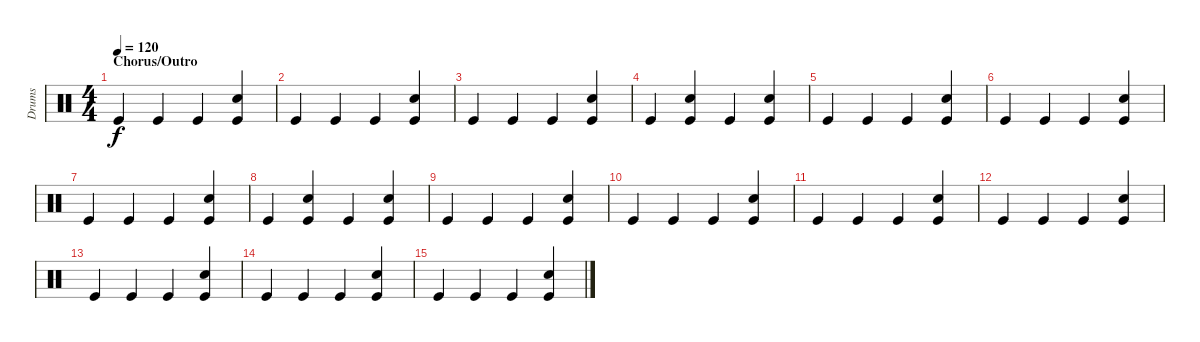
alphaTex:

\track ("Drums" "Drums") {instrument percussion}
\staff {score}
\articulation defaults
\ts (4 4)
\section ("" "Chorus/Outro")
\tempo 120
\clef neutral
\ks c "Kick (hit)".4{dy f} "Kick (hit)".4 "Kick (hit)".4
("Snare (hit) 2" "Kick (hit)").4 |
"Kick (hit)".4 "Kick (hit)".4 "Kick (hit)".4 ("Snare (hit) 2" "Kick (hit)").4 |
"Kick (hit)".4 "Kick (hit)".4 "Kick (hit)".4 ("Snare (hit) 2" "Kick (hit)").4 |
"Kick (hit)".4 ("Snare (hit) 2" "Kick (hit)").4 "Kick (hit)".4 ("Snare (hit) 2" "Kick (hit)").4 |
"Kick (hit)".4 "Kick (hit)".4 "Kick (hit)".4 ("Snare (hit) 2" "Kick (hit)").4 |
"Kick (hit)".4 "Kick (hit)".4 "Kick (hit)".4 ("Snare (hit) 2" "Kick (hit)").4 |
"Kick (hit)".4 "Kick (hit)".4 "Kick (hit)".4 ("Snare (hit) 2" "Kick (hit)").4 |
"Kick (hit)".4 ("Snare (hit) 2" "Kick (hit)").4 "Kick (hit)".4 ("Snare (hit) 2" "Kick (hit)").4 |
"Kick (hit)".4 "Kick (hit)".4 "Kick (hit)".4 ("Snare (hit) 2" "Kick (hit)").4 |
"Kick (hit)".4 "Kick (hit)".4 "Kick (hit)".4 ("Snare (hit) 2" "Kick (hit)").4 |
"Kick (hit)".4 "Kick (hit)".4 "Kick (hit)".4 ("Snare (hit) 2" "Kick (hit)").4 |
"Kick (hit)".4 "Kick (hit)".4 "Kick (hit)".4 ("Snare (hit) 2" "Kick (hit)").4 |
"Kick (hit)".4 "Kick (hit)".4 "Kick (hit)".4 ("Snare (hit) 2" "Kick (hit)").4 |
"Kick (hit)".4{volume 0} "Kick (hit)".4 "Kick (hit)".4 ("Snare (hit) 2" "Kick (hit)").4 |
"Kick (hit)".4 "Kick (hit)".4 "Kick (hit)".4 ("Snare (hit) 2" "Kick (hit)").4
